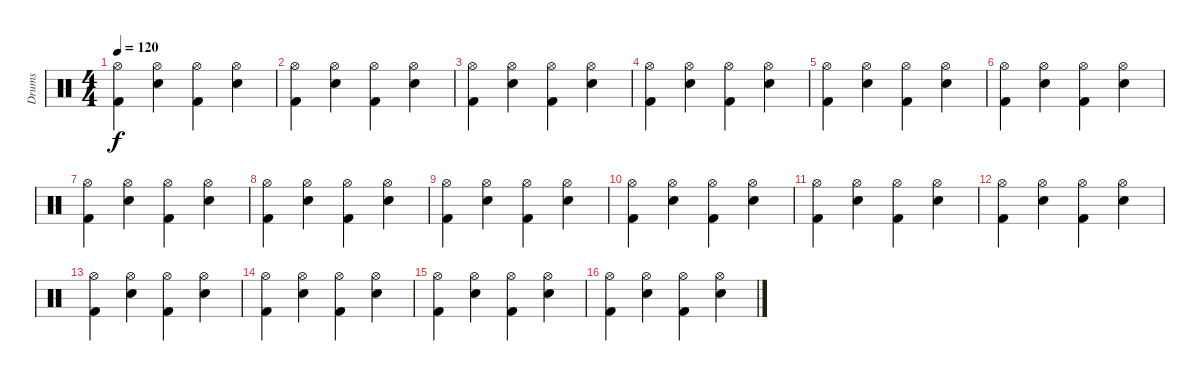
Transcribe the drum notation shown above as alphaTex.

\track ("Drums" "Drums") {instrument percussion}
\staff {score}
\articulation defaults
\ts (4 4)
\tempo 120
\clef neutral
\ks c
("Kick (hit) 2" "Hi-Hat (open)").4{dy f} ("Snare (hit) 2" "Hi-Hat (open)").4 ("Kick (hit) 2" "Hi-Hat (open)").4 ("Snare (hit) 2" "Hi-Hat (open)").4 |
("Kick (hit) 2" "Hi-Hat (open)").4 ("Snare (hit) 2" "Hi-Hat (open)").4 ("Kick (hit) 2" "Hi-Hat (open)").4 ("Snare (hit) 2" "Hi-Hat (open)").4 |
("Kick (hit) 2" "Hi-Hat (open)").4 ("Snare (hit) 2" "Hi-Hat (open)").4 ("Kick (hit) 2" "Hi-Hat (open)").4 ("Snare (hit) 2" "Hi-Hat (open)").4 |
("Kick (hit) 2" "Hi-Hat (open)").4 ("Snare (hit) 2" "Hi-Hat (open)").4 ("Kick (hit) 2" "Hi-Hat (open)").4 ("Snare (hit) 2" "Hi-Hat (open)").4 |
("Kick (hit) 2" "Hi-Hat (open)").4 ("Snare (hit) 2" "Hi-Hat (open)").4 ("Kick (hit) 2" "Hi-Hat (open)").4 ("Snare (hit) 2" "Hi-Hat (open)").4 |
("Kick (hit) 2" "Hi-Hat (open)").4 ("Snare (hit) 2" "Hi-Hat (open)").4 ("Kick (hit) 2" "Hi-Hat (open)").4 ("Snare (hit) 2" "Hi-Hat (open)").4 |
("Kick (hit) 2" "Hi-Hat (open)").4 ("Snare (hit) 2" "Hi-Hat (open)").4 ("Kick (hit) 2" "Hi-Hat (open)").4 ("Snare (hit) 2" "Hi-Hat (open)").4 |
("Kick (hit) 2" "Hi-Hat (open)").4 ("Snare (hit) 2" "Hi-Hat (open)").4 ("Kick (hit) 2" "Hi-Hat (open)").4 ("Snare (hit) 2" "Hi-Hat (open)").4 |
("Kick (hit) 2" "Hi-Hat (open)").4 ("Snare (hit) 2" "Hi-Hat (open)").4 ("Kick (hit) 2" "Hi-Hat (open)").4 ("Snare (hit) 2" "Hi-Hat (open)").4 |
("Kick (hit) 2" "Hi-Hat (open)").4 ("Snare (hit) 2" "Hi-Hat (open)").4 ("Kick (hit) 2" "Hi-Hat (open)").4 ("Snare (hit) 2" "Hi-Hat (open)").4 |
("Kick (hit) 2" "Hi-Hat (open)").4 ("Snare (hit) 2" "Hi-Hat (open)").4 ("Kick (hit) 2" "Hi-Hat (open)").4 ("Snare (hit) 2" "Hi-Hat (open)").4 |
("Kick (hit) 2" "Hi-Hat (open)").4 ("Snare (hit) 2" "Hi-Hat (open)").4 ("Kick (hit) 2" "Hi-Hat (open)").4 ("Snare (hit) 2" "Hi-Hat (open)").4 |
("Kick (hit) 2" "Hi-Hat (open)").4 ("Snare (hit) 2" "Hi-Hat (open)").4 ("Kick (hit) 2" "Hi-Hat (open)").4 ("Snare (hit) 2" "Hi-Hat (open)").4 |
("Kick (hit) 2" "Hi-Hat (open)").4 ("Snare (hit) 2" "Hi-Hat (open)").4 ("Kick (hit) 2" "Hi-Hat (open)").4 ("Snare (hit) 2" "Hi-Hat (open)").4 |
("Kick (hit) 2" "Hi-Hat (open)").4 ("Snare (hit) 2" "Hi-Hat (open)").4 ("Kick (hit) 2" "Hi-Hat (open)").4 ("Snare (hit) 2" "Hi-Hat (open)").4 |
("Kick (hit) 2" "Hi-Hat (open)").4 ("Snare (hit) 2" "Hi-Hat (open)").4 ("Kick (hit) 2" "Hi-Hat (open)").4 ("Snare (hit) 2" "Hi-Hat (open)").4
